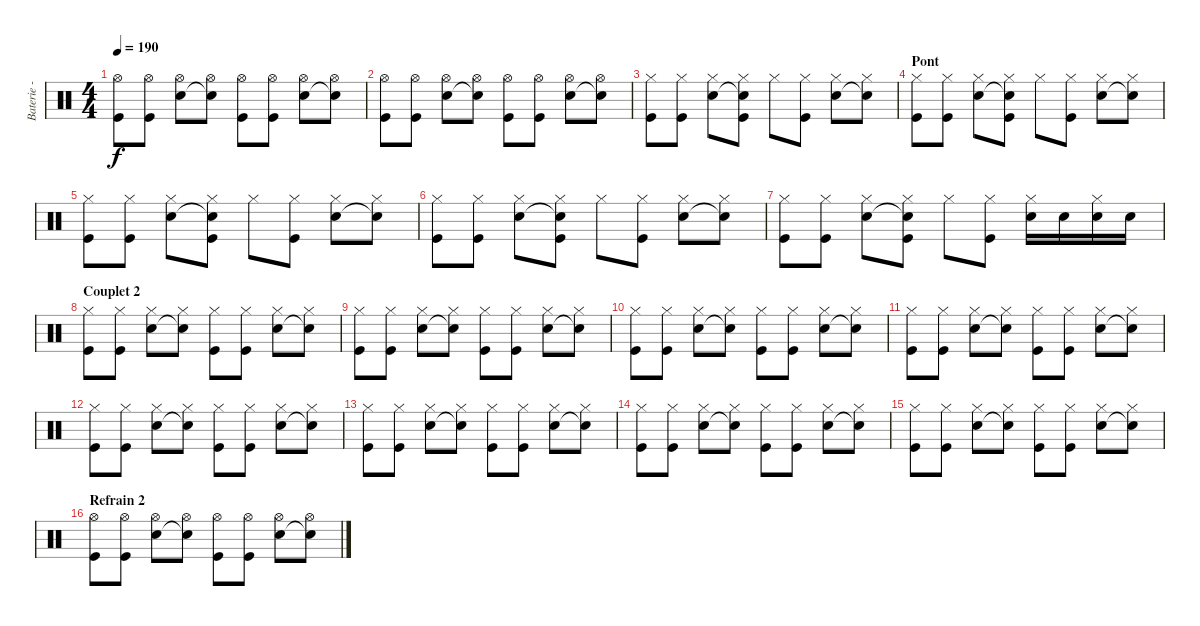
\track ("Baterie - Guillaume" "Baterie - ") {instrument percussion}
\staff {score}
\articulation defaults
\ts (4 4)
\tempo 190
\clef neutral
\ks c
("Hi-Hat (open)" "Kick (hit)").8{dy f} ("Hi-Hat (open)" "Kick (hit)").8 ("Hi-Hat (open)" "Electric Snare (hit)").8 ("Hi-Hat (open)" "Snare (hit)"{t}).8 ("Hi-Hat (open)" "Kick (hit)").8 ("Hi-Hat (open)" "Kick (hit)").8 ("Hi-Hat (open)" "Electric Snare (hit)").8 ("Hi-Hat (open)" "Snare (hit)"{t}).8 |
("Hi-Hat (open)" "Kick (hit)").8 ("Hi-Hat (open)" "Kick (hit)").8 ("Hi-Hat (open)" "Electric Snare (hit)").8 ("Hi-Hat (open)" "Snare (hit)"{t}).8 ("Hi-Hat (open)" "Kick (hit)").8 ("Hi-Hat (open)" "Kick (hit)").8 ("Hi-Hat (open)" "Electric Snare (hit)").8 ("Hi-Hat (open)" "Snare (hit)"{t}).8 |
("Hi-Hat (closed)" "Kick (hit)").8 ("Hi-Hat (closed)" "Kick (hit)").8 ("Hi-Hat (closed)" "Electric Snare (hit)").8 ("Hi-Hat (closed)" "Snare (hit)"{t} "Kick (hit)").8 "Hi-Hat (closed)".8 ("Hi-Hat (closed)" "Kick (hit)").8 ("Hi-Hat (closed)" "Electric Snare (hit)").8 ("Hi-Hat (closed)" "Snare (hit)"{t}).8 |
\section ("" "Pont")
("Hi-Hat (closed)" "Kick (hit)").8 ("Hi-Hat (closed)" "Kick (hit)").8 ("Hi-Hat (closed)" "Electric Snare (hit)").8 ("Hi-Hat (closed)" "Snare (hit)"{t} "Kick (hit)").8 "Hi-Hat (closed)".8 ("Hi-Hat (closed)" "Kick (hit)").8 ("Hi-Hat (closed)" "Electric Snare (hit)").8 ("Hi-Hat (closed)" "Snare (hit)"{t}).8 |
("Hi-Hat (closed)" "Kick (hit)").8 ("Hi-Hat (closed)" "Kick (hit)").8 ("Hi-Hat (closed)" "Electric Snare (hit)").8 ("Hi-Hat (closed)" "Snare (hit)"{t} "Kick (hit)").8 "Hi-Hat (closed)".8 ("Hi-Hat (closed)" "Kick (hit)").8 ("Hi-Hat (closed)" "Electric Snare (hit)").8 ("Hi-Hat (closed)" "Snare (hit)"{t}).8 |
("Hi-Hat (closed)" "Kick (hit)").8 ("Hi-Hat (closed)" "Kick (hit)").8 ("Hi-Hat (closed)" "Electric Snare (hit)").8 ("Hi-Hat (closed)" "Snare (hit)"{t} "Kick (hit)").8 "Hi-Hat (closed)".8 ("Hi-Hat (closed)" "Kick (hit)").8 ("Hi-Hat (closed)" "Electric Snare (hit)").8 ("Hi-Hat (closed)" "Snare (hit)"{t}).8 |
("Hi-Hat (closed)" "Kick (hit)").8 ("Hi-Hat (closed)" "Kick (hit)").8 ("Hi-Hat (closed)" "Electric Snare (hit)").8 ("Hi-Hat (closed)" "Snare (hit)"{t} "Kick (hit)").8 "Hi-Hat (closed)".8 ("Hi-Hat (closed)" "Kick (hit)").8 ("Hi-Hat (closed)" "Electric Snare (hit)").16 "Electric Snare (hit)".16 ("Hi-Hat (closed)" "Electric Snare (hit)").16 "Electric Snare (hit)".16 |
\section ("" "Couplet 2")
("Hi-Hat (closed)" "Kick (hit)").8 ("Hi-Hat (closed)" "Kick (hit)").8 ("Hi-Hat (closed)" "Electric Snare (hit)").8 ("Hi-Hat (closed)" "Snare (hit)"{t}).8 ("Hi-Hat (closed)" "Kick (hit)").8 ("Hi-Hat (closed)" "Kick (hit)").8 ("Hi-Hat (closed)" "Electric Snare (hit)").8 ("Hi-Hat (closed)" "Snare (hit)"{t}).8 |
("Hi-Hat (closed)" "Kick (hit)").8 ("Hi-Hat (closed)" "Kick (hit)").8 ("Hi-Hat (closed)" "Electric Snare (hit)").8 ("Hi-Hat (closed)" "Snare (hit)"{t}).8 ("Hi-Hat (closed)" "Kick (hit)").8 ("Hi-Hat (closed)" "Kick (hit)").8 ("Hi-Hat (closed)" "Electric Snare (hit)").8 ("Hi-Hat (closed)" "Snare (hit)"{t}).8 |
("Hi-Hat (closed)" "Kick (hit)").8 ("Hi-Hat (closed)" "Kick (hit)").8 ("Hi-Hat (closed)" "Electric Snare (hit)").8 ("Hi-Hat (closed)" "Snare (hit)"{t}).8 ("Hi-Hat (closed)" "Kick (hit)").8 ("Hi-Hat (closed)" "Kick (hit)").8 ("Hi-Hat (closed)" "Electric Snare (hit)").8 ("Hi-Hat (closed)" "Snare (hit)"{t}).8 |
("Hi-Hat (closed)" "Kick (hit)").8 ("Hi-Hat (closed)" "Kick (hit)").8 ("Hi-Hat (closed)" "Electric Snare (hit)").8 ("Hi-Hat (closed)" "Snare (hit)"{t}).8 ("Hi-Hat (closed)" "Kick (hit)").8 ("Hi-Hat (closed)" "Kick (hit)").8 ("Hi-Hat (closed)" "Electric Snare (hit)").8 ("Hi-Hat (closed)" "Snare (hit)"{t}).8 |
("Hi-Hat (closed)" "Kick (hit)").8 ("Hi-Hat (closed)" "Kick (hit)").8 ("Hi-Hat (closed)" "Electric Snare (hit)").8 ("Hi-Hat (closed)" "Snare (hit)"{t}).8 ("Hi-Hat (closed)" "Kick (hit)").8 ("Hi-Hat (closed)" "Kick (hit)").8 ("Hi-Hat (closed)" "Electric Snare (hit)").8 ("Hi-Hat (closed)" "Snare (hit)"{t}).8 |
("Hi-Hat (closed)" "Kick (hit)").8 ("Hi-Hat (closed)" "Kick (hit)").8 ("Hi-Hat (closed)" "Electric Snare (hit)").8 ("Hi-Hat (closed)" "Snare (hit)"{t}).8 ("Hi-Hat (closed)" "Kick (hit)").8 ("Hi-Hat (closed)" "Kick (hit)").8 ("Hi-Hat (closed)" "Electric Snare (hit)").8 ("Hi-Hat (closed)" "Snare (hit)"{t}).8 |
("Hi-Hat (closed)" "Kick (hit)").8 ("Hi-Hat (closed)" "Kick (hit)").8 ("Hi-Hat (closed)" "Electric Snare (hit)").8 ("Hi-Hat (closed)" "Snare (hit)"{t}).8 ("Hi-Hat (closed)" "Kick (hit)").8 ("Hi-Hat (closed)" "Kick (hit)").8 ("Hi-Hat (closed)" "Electric Snare (hit)").8 ("Hi-Hat (closed)" "Snare (hit)"{t}).8 |
("Hi-Hat (closed)" "Kick (hit)").8 ("Hi-Hat (closed)" "Kick (hit)").8 ("Hi-Hat (closed)" "Electric Snare (hit)").8 ("Hi-Hat (closed)" "Snare (hit)"{t}).8 ("Hi-Hat (closed)" "Kick (hit)").8 ("Hi-Hat (closed)" "Kick (hit)").8 ("Hi-Hat (closed)" "Electric Snare (hit)").8 ("Hi-Hat (closed)" "Snare (hit)"{t}).8 |
\section ("" "Refrain 2")
("Hi-Hat (open)" "Kick (hit)").8 ("Hi-Hat (open)" "Kick (hit)").8 ("Hi-Hat (open)" "Electric Snare (hit)").8 ("Hi-Hat (open)" "Snare (hit)"{t}).8 ("Hi-Hat (open)" "Kick (hit)").8 ("Hi-Hat (open)" "Kick (hit)").8 ("Hi-Hat (open)" "Electric Snare (hit)").8 ("Hi-Hat (open)" "Snare (hit)"{t}).8
